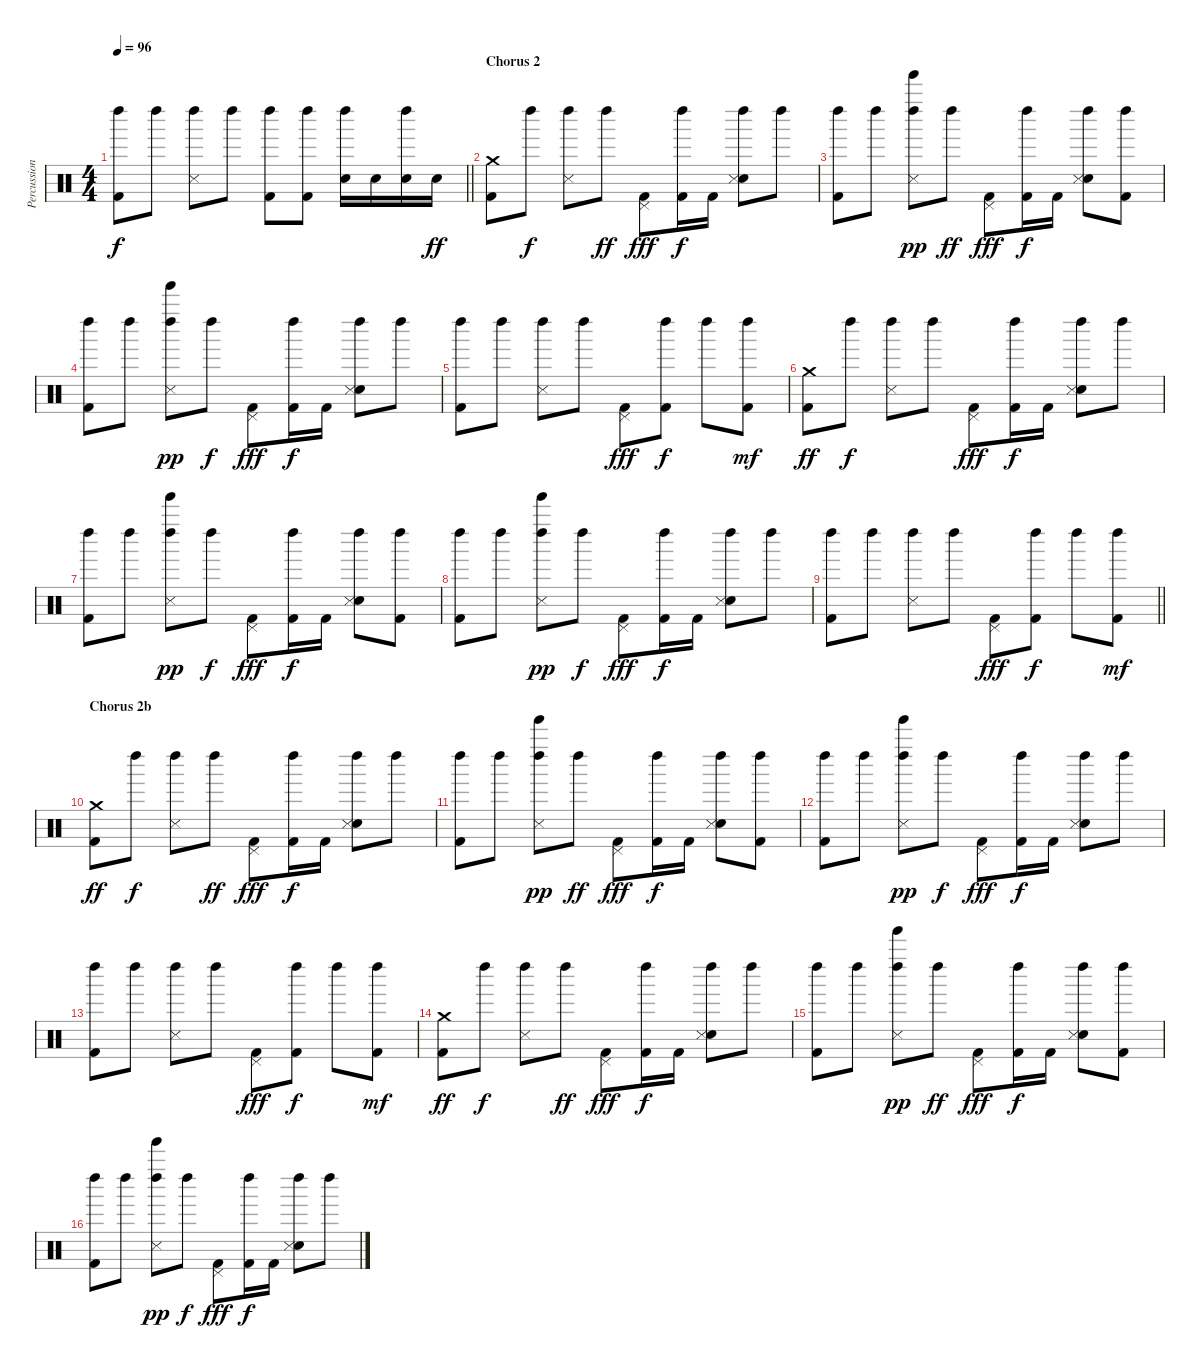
\track ("Percussion" "Percussion") {instrument percussion}
\staff {score}
\articulation defaults
\ts (4 4)
\tempo 96
\clef neutral
\barLineRight lightlight
\ks c
("Left Maraca (hit)" "Kick (hit) 2").8{dy f} "Left Maraca (hit)".8 ("Left Maraca (hit)" "Snare (side stick) 3").8 "Left Maraca (hit)".8 ("Left Maraca (hit)" "Kick (hit) 2").8 ("Left Maraca (hit)" "Kick (hit) 2").8 ("Left Maraca (hit)" "Snare (hit) 2").16 "Snare (hit) 2".16 ("Left Maraca (hit)" "Electric Snare (hit)").16 "Electric Snare (hit)".16{dy ff} |
\section ("" "Chorus 2")
("Crash medium (hit)" "Kick (hit) 2").8 "Left Maraca (hit)".8{dy f} ("Left Maraca (hit)" "Snare (side stick) 3").8 "Left Maraca (hit)".8{dy ff} ("Pedal Hi-Hat (hit)" "Kick (hit) 2").8{dy fff} ("Left Maraca (hit)" "Kick (hit) 2").16{dy f} "Kick (hit) 2".16 ("Left Maraca (hit)" "Hand Clap (hit)" "Snare (side stick) 3").8 "Left Maraca (hit)".8 |
("Left Maraca (hit)" "Kick (hit) 2").8 "Left Maraca (hit)".8 ("Left Maraca (hit)" "Tinkle Bell (hit)" "Snare (side stick) 3").8{dy pp} "Left Maraca (hit)".8{dy ff} ("Pedal Hi-Hat (hit)" "Kick (hit) 2").8{dy fff} ("Left Maraca (hit)" "Kick (hit) 2").16{dy f} "Kick (hit) 2".16 ("Left Maraca (hit)" "Hand Clap (hit)" "Snare (side stick) 3").8 ("Left Maraca (hit)" "Kick (hit) 2").8 |
("Left Maraca (hit)" "Kick (hit) 2").8 "Left Maraca (hit)".8 ("Left Maraca (hit)" "Tinkle Bell (hit)" "Snare (side stick) 3").8{dy pp} "Left Maraca (hit)".8{dy f} ("Pedal Hi-Hat (hit)" "Kick (hit) 2").8{dy fff} ("Left Maraca (hit)" "Kick (hit) 2").16{dy f} "Kick (hit) 2".16 ("Left Maraca (hit)" "Hand Clap (hit)" "Snare (side stick) 3").8 "Left Maraca (hit)".8 |
("Left Maraca (hit)" "Kick (hit) 2").8 "Left Maraca (hit)".8 ("Left Maraca (hit)" "Snare (side stick) 3").8 "Left Maraca (hit)".8 ("Pedal Hi-Hat (hit)" "Kick (hit) 2").8{dy fff} ("Left Maraca (hit)" "Kick (hit) 2").8{dy f} "Left Maraca (hit)".8 ("Left Maraca (hit)" "Kick (hit) 2").8{dy mf} |
("Crash medium (hit)" "Kick (hit) 2").8{dy ff} "Left Maraca (hit)".8{dy f} ("Left Maraca (hit)" "Snare (side stick) 3").8 "Left Maraca (hit)".8 ("Pedal Hi-Hat (hit)" "Kick (hit) 2").8{dy fff} ("Left Maraca (hit)" "Kick (hit) 2").16{dy f} "Kick (hit) 2".16 ("Left Maraca (hit)" "Hand Clap (hit)" "Snare (side stick) 3").8 "Left Maraca (hit)".8 |
("Left Maraca (hit)" "Kick (hit) 2").8 "Left Maraca (hit)".8 ("Left Maraca (hit)" "Tinkle Bell (hit)" "Snare (side stick) 3").8{dy pp} "Left Maraca (hit)".8{dy f} ("Pedal Hi-Hat (hit)" "Kick (hit) 2").8{dy fff} ("Left Maraca (hit)" "Kick (hit) 2").16{dy f} "Kick (hit) 2".16 ("Left Maraca (hit)" "Hand Clap (hit)" "Snare (side stick) 3").8 ("Left Maraca (hit)" "Kick (hit) 2").8 |
("Left Maraca (hit)" "Kick (hit) 2").8 "Left Maraca (hit)".8 ("Left Maraca (hit)" "Tinkle Bell (hit)" "Snare (side stick) 3").8{dy pp} "Left Maraca (hit)".8{dy f} ("Pedal Hi-Hat (hit)" "Kick (hit) 2").8{dy fff} ("Left Maraca (hit)" "Kick (hit) 2").16{dy f} "Kick (hit) 2".16 ("Left Maraca (hit)" "Hand Clap (hit)" "Snare (side stick) 3").8 "Left Maraca (hit)".8 |
\barLineRight lightlight
("Left Maraca (hit)" "Kick (hit) 2").8 "Left Maraca (hit)".8 ("Left Maraca (hit)" "Snare (side stick) 3").8 "Left Maraca (hit)".8 ("Pedal Hi-Hat (hit)" "Kick (hit) 2").8{dy fff} ("Left Maraca (hit)" "Kick (hit) 2").8{dy f} "Left Maraca (hit)".8 ("Left Maraca (hit)" "Kick (hit) 2").8{dy mf} |
\section ("" "Chorus 2b")
("Crash medium (hit)" "Kick (hit) 2").8{dy ff} "Left Maraca (hit)".8{dy f} ("Left Maraca (hit)" "Snare (side stick) 3").8 "Left Maraca (hit)".8{dy ff} ("Pedal Hi-Hat (hit)" "Kick (hit) 2").8{dy fff} ("Left Maraca (hit)" "Kick (hit) 2").16{dy f} "Kick (hit) 2".16 ("Left Maraca (hit)" "Hand Clap (hit)" "Snare (side stick) 3").8 "Left Maraca (hit)".8 |
("Left Maraca (hit)" "Kick (hit) 2").8 "Left Maraca (hit)".8 ("Left Maraca (hit)" "Tinkle Bell (hit)" "Snare (side stick) 3").8{dy pp} "Left Maraca (hit)".8{dy ff} ("Pedal Hi-Hat (hit)" "Kick (hit) 2").8{dy fff} ("Left Maraca (hit)" "Kick (hit) 2").16{dy f} "Kick (hit) 2".16 ("Left Maraca (hit)" "Hand Clap (hit)" "Snare (side stick) 3").8 ("Left Maraca (hit)" "Kick (hit) 2").8 |
("Left Maraca (hit)" "Kick (hit) 2").8 "Left Maraca (hit)".8 ("Left Maraca (hit)" "Tinkle Bell (hit)" "Snare (side stick) 3").8{dy pp} "Left Maraca (hit)".8{dy f} ("Pedal Hi-Hat (hit)" "Kick (hit) 2").8{dy fff} ("Left Maraca (hit)" "Kick (hit) 2").16{dy f} "Kick (hit) 2".16 ("Left Maraca (hit)" "Hand Clap (hit)" "Snare (side stick) 3").8 "Left Maraca (hit)".8 |
("Left Maraca (hit)" "Kick (hit) 2").8 "Left Maraca (hit)".8 ("Left Maraca (hit)" "Snare (side stick) 3").8 "Left Maraca (hit)".8 ("Pedal Hi-Hat (hit)" "Kick (hit) 2").8{dy fff} ("Left Maraca (hit)" "Kick (hit) 2").8{dy f} "Left Maraca (hit)".8 ("Left Maraca (hit)" "Kick (hit) 2").8{dy mf} |
("Crash medium (hit)" "Kick (hit) 2").8{dy ff} "Left Maraca (hit)".8{dy f} ("Left Maraca (hit)" "Snare (side stick) 3").8 "Left Maraca (hit)".8{dy ff} ("Pedal Hi-Hat (hit)" "Kick (hit) 2").8{dy fff} ("Left Maraca (hit)" "Kick (hit) 2").16{dy f} "Kick (hit) 2".16 ("Left Maraca (hit)" "Hand Clap (hit)" "Snare (side stick) 3").8 "Left Maraca (hit)".8 |
("Left Maraca (hit)" "Kick (hit) 2").8 "Left Maraca (hit)".8 ("Left Maraca (hit)" "Tinkle Bell (hit)" "Snare (side stick) 3").8{dy pp} "Left Maraca (hit)".8{dy ff} ("Pedal Hi-Hat (hit)" "Kick (hit) 2").8{dy fff} ("Left Maraca (hit)" "Kick (hit) 2").16{dy f} "Kick (hit) 2".16 ("Left Maraca (hit)" "Hand Clap (hit)" "Snare (side stick) 3").8 ("Left Maraca (hit)" "Kick (hit) 2").8 |
("Left Maraca (hit)" "Kick (hit) 2").8 "Left Maraca (hit)".8 ("Left Maraca (hit)" "Tinkle Bell (hit)" "Snare (side stick) 3").8{dy pp} "Left Maraca (hit)".8{dy f} ("Pedal Hi-Hat (hit)" "Kick (hit) 2").8{dy fff} ("Left Maraca (hit)" "Kick (hit) 2").16{dy f} "Kick (hit) 2".16 ("Left Maraca (hit)" "Hand Clap (hit)" "Snare (side stick) 3").8 "Left Maraca (hit)".8
